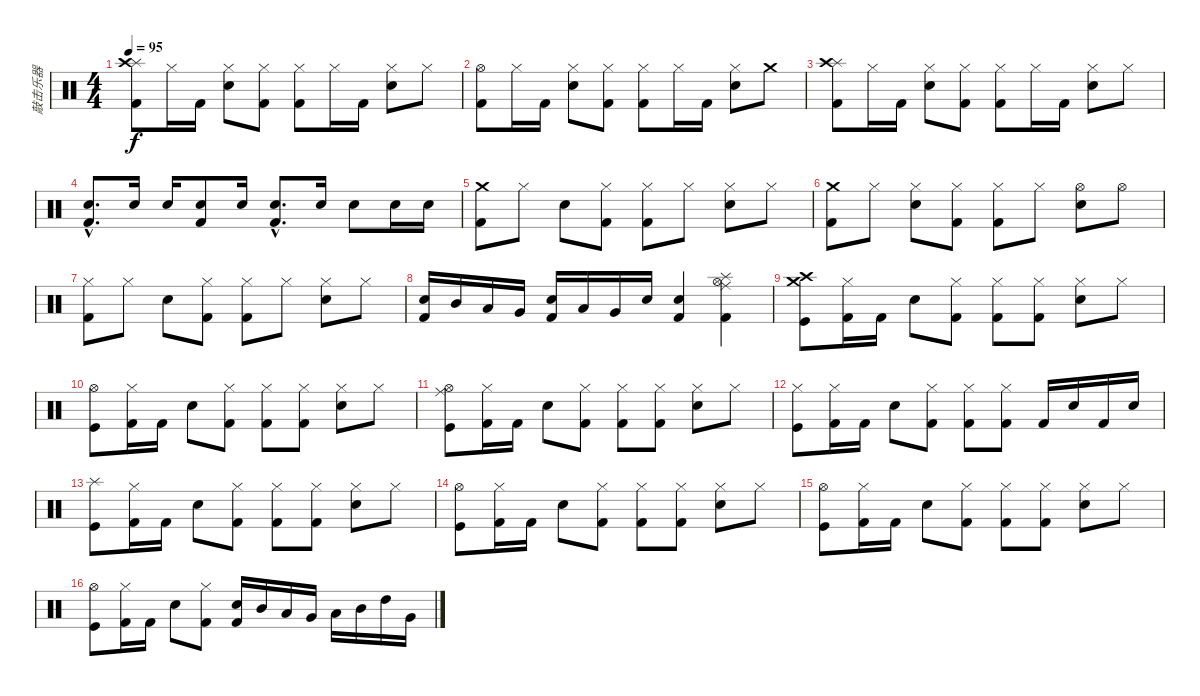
\track ("敲击乐器" "敲击乐器") {instrument percussion}
\staff {score}
\articulation defaults
\ts (4 4)
\tempo 95
\clef neutral
\ks c
("Splash (hit)" "Crash high (hit)" "Kick (hit) 2").8{dy f} "Hi-Hat (closed)".16 "Kick (hit) 2".16 ("Hi-Hat (closed)" "Electric Snare (hit)").8 ("Hi-Hat (closed)" "Kick (hit) 2").8 ("Hi-Hat (closed)" "Kick (hit) 2").8 "Hi-Hat (closed)".16 "Kick (hit) 2".16 ("Hi-Hat (closed)" "Electric Snare (hit)").8 "Hi-Hat (closed)".8 |
("Hi-Hat (open)" "Kick (hit) 2").8 "Hi-Hat (closed)".16 "Kick (hit) 2".16 ("Hi-Hat (closed)" "Electric Snare (hit)").8 ("Hi-Hat (closed)" "Kick (hit) 2").8 ("Hi-Hat (closed)" "Kick (hit) 2").8 "Hi-Hat (closed)".16 "Kick (hit) 2".16 ("Hi-Hat (closed)" "Electric Snare (hit)").8 "Crash medium (hit)".8 |
("Splash (hit)" "Crash high (hit)" "Kick (hit) 2").8 "Hi-Hat (closed)".16 "Kick (hit) 2".16 ("Hi-Hat (closed)" "Electric Snare (hit)").8 ("Hi-Hat (closed)" "Kick (hit) 2").8 ("Hi-Hat (closed)" "Kick (hit) 2").8 "Hi-Hat (closed)".16 "Kick (hit) 2".16 ("Hi-Hat (closed)" "Electric Snare (hit)").8 "Hi-Hat (closed)".8 |
("Electric Snare (hit)"{hac} "Kick (hit) 2"{hac}).8{d} "Electric Snare (hit)".16 "Electric Snare (hit)".16 ("Electric Snare (hit)" "Kick (hit) 2").8 "Electric Snare (hit)".16 ("Electric Snare (hit)"{hac} "Kick (hit) 2"{hac}).8{d} "Electric Snare (hit)".16 "Electric Snare (hit)".8 "Electric Snare (hit)".16 "Electric Snare (hit)".16 |
("Crash medium (hit)" "Kick (hit) 2").8 "Hi-Hat (closed)".8 "Electric Snare (hit)".8 ("Hi-Hat (closed)" "Kick (hit) 2").8 ("Hi-Hat (closed)" "Kick (hit) 2").8 "Hi-Hat (closed)".8 ("Hi-Hat (closed)" "Electric Snare (hit)").8 "Hi-Hat (closed)".8 |
("Crash medium (hit)" "Kick (hit) 2").8 "Hi-Hat (closed)".8 ("Hi-Hat (closed)" "Electric Snare (hit)").8 ("Hi-Hat (closed)" "Kick (hit) 2").8 ("Hi-Hat (closed)" "Kick (hit) 2").8 "Hi-Hat (closed)".8 ("Hi-Hat (open)" "Electric Snare (hit)").8 "Hi-Hat (open)".8 |
("Hi-Hat (closed)" "Kick (hit) 2").8 "Hi-Hat (closed)".8 "Electric Snare (hit)".8 ("Hi-Hat (closed)" "Kick (hit) 2").8 ("Hi-Hat (closed)" "Kick (hit) 2").8 "Hi-Hat (closed)".8 ("Hi-Hat (closed)" "Electric Snare (hit)").8 "Hi-Hat (closed)".8 |
("Electric Snare (hit)" "Kick (hit) 2").16 "Mid Tom (hit)".16 "Low Tom (hit)".16 "Very Low Tom (hit)".16 ("Electric Snare (hit)" "Kick (hit) 2").16 "Low Tom (hit)".16 "Very Low Tom (hit)".16 "Electric Snare (hit)".16 ("Electric Snare (hit)" "Kick (hit) 2").4 ("Splash (hit)" "Ride (middle)" "Hi-Hat (open)" "Kick (hit) 2").4 |
("Crash medium (hit)" "Crash high (hit)" "Kick (hit)").8 ("Hi-Hat (closed)" "Kick (hit) 2").16 "Kick (hit) 2".16 "Electric Snare (hit)".8 ("Hi-Hat (closed)" "Kick (hit) 2").8 ("Hi-Hat (closed)" "Kick (hit) 2").8 ("Hi-Hat (closed)" "Kick (hit) 2").8 ("Hi-Hat (closed)" "Electric Snare (hit)").8 "Hi-Hat (closed)".8 |
("Hi-Hat (open)" "Kick (hit)").8 ("Hi-Hat (closed)" "Kick (hit) 2").16 "Kick (hit) 2".16 "Electric Snare (hit)".8 ("Hi-Hat (closed)" "Kick (hit) 2").8 ("Hi-Hat (closed)" "Kick (hit) 2").8 ("Hi-Hat (closed)" "Kick (hit) 2").8 ("Hi-Hat (closed)" "Electric Snare (hit)").8 "Hi-Hat (closed)".8 |
("Ride (middle)" "Hi-Hat (open)" "Kick (hit)").8 ("Hi-Hat (closed)" "Kick (hit) 2").16 "Kick (hit) 2".16 "Electric Snare (hit)".8 ("Hi-Hat (closed)" "Kick (hit) 2").8 ("Hi-Hat (closed)" "Kick (hit) 2").8 ("Hi-Hat (closed)" "Kick (hit) 2").8 ("Hi-Hat (closed)" "Electric Snare (hit)").8 "Hi-Hat (closed)".8 |
("Hi-Hat (closed)" "Kick (hit)").8 ("Hi-Hat (closed)" "Kick (hit) 2").16 "Kick (hit) 2".16 "Electric Snare (hit)".8 ("Hi-Hat (closed)" "Kick (hit) 2").8 ("Hi-Hat (closed)" "Kick (hit) 2").8 ("Hi-Hat (closed)" "Kick (hit) 2").8 "Kick (hit) 2".16 "Electric Snare (hit)".16 "Kick (hit) 2".16 "Electric Snare (hit)".16 |
("Splash (hit)" "Kick (hit)").8 ("Hi-Hat (closed)" "Kick (hit) 2").16 "Kick (hit) 2".16 "Electric Snare (hit)".8 ("Hi-Hat (closed)" "Kick (hit) 2").8 ("Hi-Hat (closed)" "Kick (hit) 2").8 ("Hi-Hat (closed)" "Kick (hit) 2").8 ("Hi-Hat (closed)" "Electric Snare (hit)").8 "Hi-Hat (closed)".8 |
("Hi-Hat (open)" "Kick (hit)").8 ("Hi-Hat (closed)" "Kick (hit) 2").16 "Kick (hit) 2".16 "Electric Snare (hit)".8 ("Hi-Hat (closed)" "Kick (hit) 2").8 ("Hi-Hat (closed)" "Kick (hit) 2").8 ("Hi-Hat (closed)" "Kick (hit) 2").8 ("Hi-Hat (closed)" "Electric Snare (hit)").8 "Hi-Hat (closed)".8 |
("Hi-Hat (open)" "Kick (hit)").8 ("Hi-Hat (closed)" "Kick (hit) 2").16 "Kick (hit) 2".16 "Electric Snare (hit)".8 ("Hi-Hat (closed)" "Kick (hit) 2").8 ("Hi-Hat (closed)" "Kick (hit) 2").8 ("Hi-Hat (closed)" "Kick (hit) 2").8 ("Hi-Hat (closed)" "Electric Snare (hit)").8 "Hi-Hat (closed)".8 |
("Hi-Hat (open)" "Kick (hit)").8 ("Hi-Hat (closed)" "Kick (hit) 2").16 "Kick (hit) 2".16 "Electric Snare (hit)".8 ("Hi-Hat (closed)" "Kick (hit) 2").8 ("Electric Snare (hit)" "Kick (hit) 2").16 "Mid Tom (hit)".16 "Low Tom (hit)".16 "Very Low Tom (hit)".16 "Low Tom (hit)".16 "Mid Tom (hit)".16 "High Tom (hit)".16 "Very Low Tom (hit)".16
